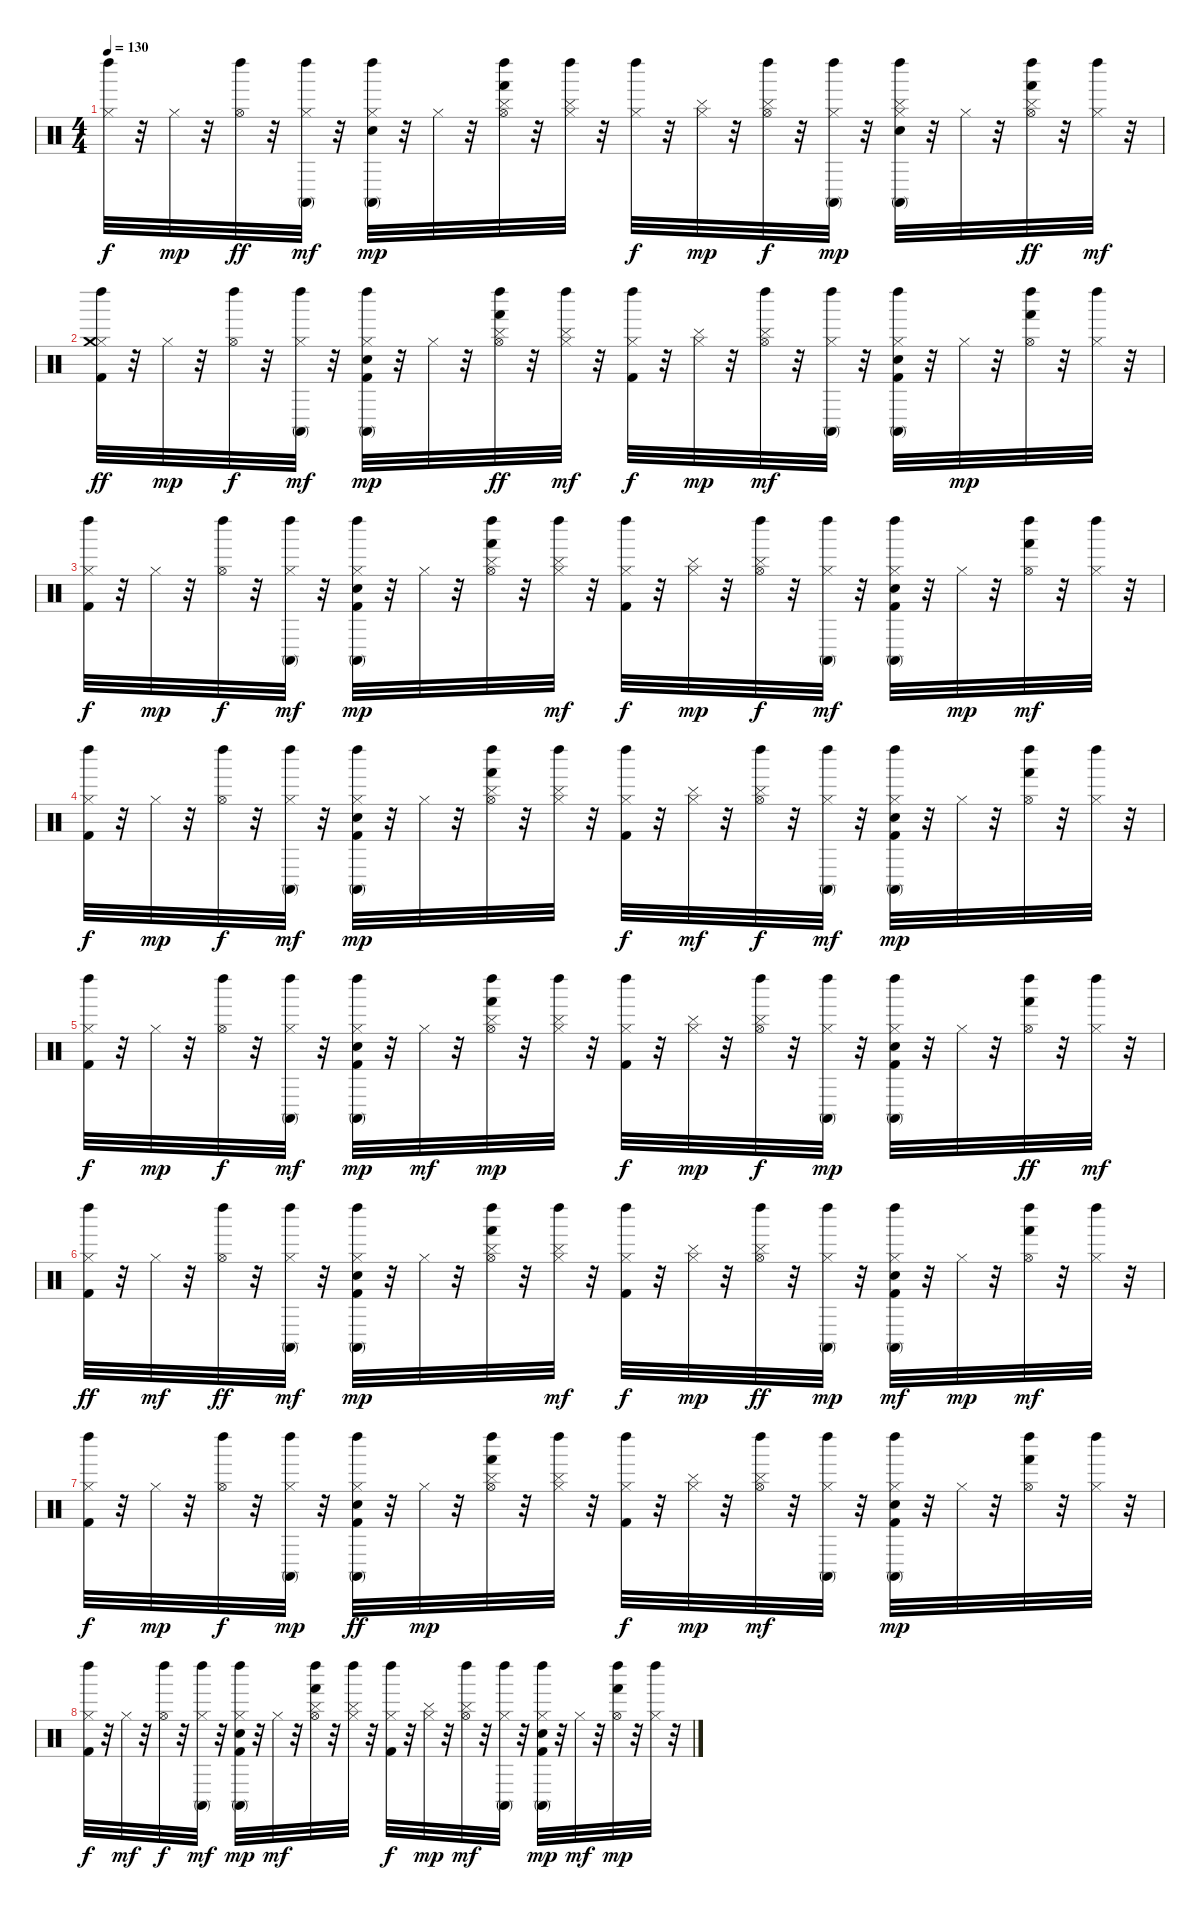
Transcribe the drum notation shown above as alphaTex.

\track "" {instrument percussion}
\staff {score}
\articulation defaults
\ts (4 4)
\tempo 130
\clef neutral
\ks c
("Left Maraca (hit)" "Hi-Hat (closed)").32{dy f} r.32 "Hi-Hat (closed)".32{dy mp} r.32 ("Left Maraca (hit)" "Hi-Hat (open)").32{dy ff} r.32 ("Conga high (mute)" "Hi-Hat (closed)" "Left Maraca (hit)").32{dy mf} r.32 ("Conga high (mute)" "Hand Clap (hit)" "Left Maraca (hit)" "Hi-Hat (closed)").32{dy mp} r.32 "Hi-Hat (closed)".32 r.32 ("Cymbal (hit)" "Left Maraca (hit)" "Hi-Hat (open)" "Hand (hit)").32 r.32 ("Left Maraca (hit)" "Cymbal (hit)" "Hi-Hat (closed)").32 r.32 ("Hi-Hat (closed)" "Left Maraca (hit)").32{dy f} r.32 ("Hi-Hat (closed)" "Cymbal (hit)").32{dy mp} r.32 ("Hi-Hat (open)" "Cymbal (hit)" "Left Maraca (hit)").32{dy f} r.32 ("Hi-Hat (closed)" "Left Maraca (hit)" "Conga high (mute)").32{dy mp} r.32 ("Conga high (mute)" "Hi-Hat (closed)" "Cymbal (hit)" "Hand Clap (hit)" "Left Maraca (hit)").32 r.32 "Hi-Hat (closed)".32 r.32 ("Cymbal (hit)" "Hand (hit)" "Left Maraca (hit)" "Hi-Hat (open)").32{dy ff} r.32 ("Hi-Hat (closed)" "Left Maraca (hit)").32{dy mf} r.32 |
("Hi-Hat (closed)" "Kick (hit) 2" "Crash medium (hit)" "Left Maraca (hit)").32{dy ff} r.32 "Hi-Hat (closed)".32{dy mp} r.32 ("Hi-Hat (open)" "Left Maraca (hit)").32{dy f} r.32 ("Conga high (mute)" "Hi-Hat (closed)" "Left Maraca (hit)").32{dy mf} r.32 ("Kick (hit) 2" "Hi-Hat (closed)" "Left Maraca (hit)" "Conga high (mute)" "Hand Clap (hit)").32{dy mp} r.32 "Hi-Hat (closed)".32 r.32 ("Hand (hit)" "Cymbal (hit)" "Hi-Hat (open)" "Left Maraca (hit)").32{dy ff} r.32 ("Hi-Hat (closed)" "Cymbal (hit)" "Left Maraca (hit)").32{dy mf} r.32 ("Kick (hit) 2" "Hi-Hat (closed)" "Left Maraca (hit)").32{dy f} r.32 ("Cymbal (hit)" "Hi-Hat (closed)").32{dy mp} r.32 ("Cymbal (hit)" "Hi-Hat (open)" "Left Maraca (hit)").32{dy mf} r.32 ("Conga high (mute)" "Hi-Hat (closed)" "Left Maraca (hit)").32 r.32 ("Hi-Hat (closed)" "Kick (hit) 2" "Left Maraca (hit)" "Hand Clap (hit)" "Conga high (mute)").32 r.32 "Hi-Hat (closed)".32{dy mp} r.32 ("Left Maraca (hit)" "Hi-Hat (open)" "Hand (hit)").32 r.32 ("Left Maraca (hit)" "Hi-Hat (closed)").32 r.32 |
("Left Maraca (hit)" "Hi-Hat (closed)" "Kick (hit) 2").32{dy f} r.32 "Hi-Hat (closed)".32{dy mp} r.32 ("Left Maraca (hit)" "Hi-Hat (open)").32{dy f} r.32 ("Conga high (mute)" "Hi-Hat (closed)" "Left Maraca (hit)").32{dy mf} r.32 ("Left Maraca (hit)" "Hand Clap (hit)" "Hi-Hat (closed)" "Kick (hit) 2" "Conga high (mute)").32{dy mp} r.32 "Hi-Hat (closed)".32 r.32 ("Cymbal (hit)" "Left Maraca (hit)" "Hi-Hat (open)" "Hand (hit)").32 r.32 ("Left Maraca (hit)" "Hi-Hat (closed)" "Cymbal (hit)").32{dy mf} r.32 ("Left Maraca (hit)" "Hi-Hat (closed)" "Kick (hit) 2").32{dy f} r.32 ("Hi-Hat (closed)" "Cymbal (hit)").32{dy mp} r.32 ("Hi-Hat (open)" "Left Maraca (hit)" "Cymbal (hit)").32{dy f} r.32 ("Hi-Hat (closed)" "Left Maraca (hit)" "Conga high (mute)").32{dy mf} r.32 ("Hi-Hat (closed)" "Kick (hit) 2" "Conga high (mute)" "Hand Clap (hit)" "Left Maraca (hit)").32 r.32 "Hi-Hat (closed)".32{dy mp} r.32 ("Hand (hit)" "Hi-Hat (open)" "Left Maraca (hit)").32{dy mf} r.32 ("Hi-Hat (closed)" "Left Maraca (hit)").32 r.32 |
("Hi-Hat (closed)" "Kick (hit) 2" "Left Maraca (hit)").32{dy f} r.32 "Hi-Hat (closed)".32{dy mp} r.32 ("Left Maraca (hit)" "Hi-Hat (open)").32{dy f} r.32 ("Conga high (mute)" "Hi-Hat (closed)" "Left Maraca (hit)").32{dy mf} r.32 ("Conga high (mute)" "Hi-Hat (closed)" "Kick (hit) 2" "Left Maraca (hit)" "Hand Clap (hit)").32{dy mp} r.32 "Hi-Hat (closed)".32 r.32 ("Cymbal (hit)" "Left Maraca (hit)" "Hand (hit)" "Hi-Hat (open)").32 r.32 ("Cymbal (hit)" "Hi-Hat (closed)" "Left Maraca (hit)").32 r.32 ("Hi-Hat (closed)" "Kick (hit) 2" "Left Maraca (hit)").32{dy f} r.32 ("Hi-Hat (closed)" "Cymbal (hit)").32{dy mf} r.32 ("Cymbal (hit)" "Left Maraca (hit)" "Hi-Hat (open)").32{dy f} r.32 ("Hi-Hat (closed)" "Conga high (mute)" "Left Maraca (hit)").32{dy mf} r.32 ("Conga high (mute)" "Kick (hit) 2" "Hi-Hat (closed)" "Hand Clap (hit)" "Left Maraca (hit)").32{dy mp} r.32 "Hi-Hat (closed)".32 r.32 ("Hi-Hat (open)" "Left Maraca (hit)" "Hand (hit)").32 r.32 ("Left Maraca (hit)" "Hi-Hat (closed)").32 r.32 |
("Left Maraca (hit)" "Hi-Hat (closed)" "Kick (hit) 2").32{dy f} r.32 "Hi-Hat (closed)".32{dy mp} r.32 ("Hi-Hat (open)" "Left Maraca (hit)").32{dy f} r.32 ("Conga high (mute)" "Hi-Hat (closed)" "Left Maraca (hit)").32{dy mf} r.32 ("Left Maraca (hit)" "Hand Clap (hit)" "Hi-Hat (closed)" "Kick (hit) 2" "Conga high (mute)").32{dy mp} r.32 "Hi-Hat (closed)".32{dy mf} r.32 ("Hand (hit)" "Left Maraca (hit)" "Cymbal (hit)" "Hi-Hat (open)").32{dy mp} r.32 ("Left Maraca (hit)" "Cymbal (hit)" "Hi-Hat (closed)").32 r.32 ("Left Maraca (hit)" "Kick (hit) 2" "Hi-Hat (closed)").32{dy f} r.32 ("Cymbal (hit)" "Hi-Hat (closed)").32{dy mp} r.32 ("Hi-Hat (open)" "Cymbal (hit)" "Left Maraca (hit)").32{dy f} r.32 ("Conga high (mute)" "Hi-Hat (closed)" "Left Maraca (hit)").32{dy mp} r.32 ("Kick (hit) 2" "Hi-Hat (closed)" "Left Maraca (hit)" "Conga high (mute)" "Hand Clap (hit)").32 r.32 "Hi-Hat (closed)".32 r.32 ("Hand (hit)" "Hi-Hat (open)" "Left Maraca (hit)").32{dy ff} r.32 ("Hi-Hat (closed)" "Left Maraca (hit)").32{dy mf} r.32 |
("Kick (hit) 2" "Hi-Hat (closed)" "Left Maraca (hit)").32{dy ff} r.32 "Hi-Hat (closed)".32{dy mf} r.32 ("Left Maraca (hit)" "Hi-Hat (open)").32{dy ff} r.32 ("Conga high (mute)" "Hi-Hat (closed)" "Left Maraca (hit)").32{dy mf} r.32 ("Kick (hit) 2" "Hi-Hat (closed)" "Conga high (mute)" "Left Maraca (hit)" "Hand Clap (hit)").32{dy mp} r.32 "Hi-Hat (closed)".32 r.32 ("Cymbal (hit)" "Hand (hit)" "Hi-Hat (open)" "Left Maraca (hit)").32 r.32 ("Hi-Hat (closed)" "Cymbal (hit)" "Left Maraca (hit)").32{dy mf} r.32 ("Kick (hit) 2" "Hi-Hat (closed)" "Left Maraca (hit)").32{dy f} r.32 ("Cymbal (hit)" "Hi-Hat (closed)").32{dy mp} r.32 ("Cymbal (hit)" "Hi-Hat (open)" "Left Maraca (hit)").32{dy ff} r.32 ("Hi-Hat (closed)" "Left Maraca (hit)" "Conga high (mute)").32{dy mp} r.32 ("Kick (hit) 2" "Hi-Hat (closed)" "Hand Clap (hit)" "Conga high (mute)" "Left Maraca (hit)").32{dy mf} r.32 "Hi-Hat (closed)".32{dy mp} r.32 ("Hand (hit)" "Left Maraca (hit)" "Hi-Hat (open)").32{dy mf} r.32 ("Left Maraca (hit)" "Hi-Hat (closed)").32 r.32 |
("Left Maraca (hit)" "Hi-Hat (closed)" "Kick (hit) 2").32{dy f} r.32 "Hi-Hat (closed)".32{dy mp} r.32 ("Hi-Hat (open)" "Left Maraca (hit)").32{dy f} r.32 ("Conga high (mute)" "Hi-Hat (closed)" "Left Maraca (hit)").32{dy mp} r.32 ("Conga high (mute)" "Left Maraca (hit)" "Hand Clap (hit)" "Kick (hit) 2" "Hi-Hat (closed)").32{dy ff} r.32 "Hi-Hat (closed)".32{dy mp} r.32 ("Left Maraca (hit)" "Cymbal (hit)" "Hi-Hat (open)" "Hand (hit)").32 r.32 ("Left Maraca (hit)" "Cymbal (hit)" "Hi-Hat (closed)").32 r.32 ("Hi-Hat (closed)" "Kick (hit) 2" "Left Maraca (hit)").32{dy f} r.32 ("Cymbal (hit)" "Hi-Hat (closed)").32{dy mp} r.32 ("Hi-Hat (open)" "Cymbal (hit)" "Left Maraca (hit)").32{dy mf} r.32 ("Hi-Hat (closed)" "Conga high (mute)" "Left Maraca (hit)").32 r.32 ("Conga high (mute)" "Hi-Hat (closed)" "Kick (hit) 2" "Hand Clap (hit)" "Left Maraca (hit)").32{dy mp} r.32 "Hi-Hat (closed)".32 r.32 ("Left Maraca (hit)" "Hand (hit)" "Hi-Hat (open)").32 r.32 ("Hi-Hat (closed)" "Left Maraca (hit)").32 r.32 |
("Hi-Hat (closed)" "Kick (hit) 2" "Left Maraca (hit)").32{dy f} r.32 "Hi-Hat (closed)".32{dy mf} r.32 ("Hi-Hat (open)" "Left Maraca (hit)").32{dy f} r.32 ("Conga high (mute)" "Hi-Hat (closed)" "Left Maraca (hit)").32{dy mf} r.32 ("Hi-Hat (closed)" "Kick (hit) 2" "Left Maraca (hit)" "Hand Clap (hit)" "Conga high (mute)").32{dy mp} r.32 "Hi-Hat (closed)".32{dy mf} r.32 ("Hand (hit)" "Cymbal (hit)" "Hi-Hat (open)" "Left Maraca (hit)").32 r.32 ("Hi-Hat (closed)" "Cymbal (hit)" "Left Maraca (hit)").32 r.32 ("Hi-Hat (closed)" "Kick (hit) 2" "Left Maraca (hit)").32{dy f} r.32 ("Cymbal (hit)" "Hi-Hat (closed)").32{dy mp} r.32 ("Cymbal (hit)" "Left Maraca (hit)" "Hi-Hat (open)").32{dy mf} r.32 ("Conga high (mute)" "Hi-Hat (closed)" "Left Maraca (hit)").32 r.32 ("Hi-Hat (closed)" "Kick (hit) 2" "Conga high (mute)" "Hand Clap (hit)" "Left Maraca (hit)").32{dy mp} r.32 "Hi-Hat (closed)".32{dy mf} r.32 ("Left Maraca (hit)" "Hi-Hat (open)" "Hand (hit)").32{dy mp} r.32 ("Left Maraca (hit)" "Hi-Hat (closed)").32 r.32
